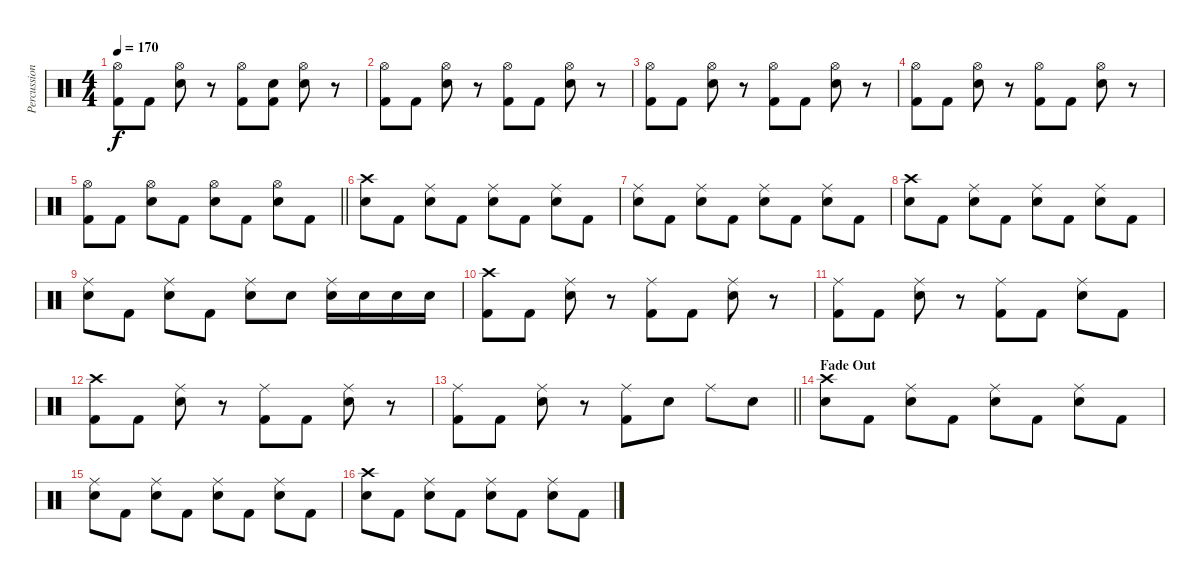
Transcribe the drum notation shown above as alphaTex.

\track ("Percussion" "Percussion") {instrument percussion}
\staff {score}
\articulation defaults
\ts (4 4)
\tempo 170
\clef neutral
\ks c
("Hi-Hat (open)" "Kick (hit) 2").8{dy f} "Kick (hit) 2".8 ("Hi-Hat (open)" "Electric Snare (hit)").8 r.8 ("Hi-Hat (open)" "Kick (hit) 2").8 ("Electric Snare (hit)" "Kick (hit) 2").8 ("Hi-Hat (open)" "Electric Snare (hit)").8 r.8 |
("Hi-Hat (open)" "Kick (hit) 2").8 "Kick (hit) 2".8 ("Hi-Hat (open)" "Electric Snare (hit)").8 r.8 ("Hi-Hat (open)" "Kick (hit) 2").8 "Kick (hit) 2".8 ("Hi-Hat (open)" "Electric Snare (hit)").8 r.8 |
("Hi-Hat (open)" "Kick (hit) 2").8 "Kick (hit) 2".8 ("Hi-Hat (open)" "Electric Snare (hit)").8 r.8 ("Hi-Hat (open)" "Kick (hit) 2").8 "Kick (hit) 2".8 ("Hi-Hat (open)" "Electric Snare (hit)").8 r.8 |
("Hi-Hat (open)" "Kick (hit) 2").8 "Kick (hit) 2".8 ("Hi-Hat (open)" "Electric Snare (hit)").8 r.8 ("Hi-Hat (open)" "Kick (hit) 2").8 "Kick (hit) 2".8 ("Hi-Hat (open)" "Electric Snare (hit)").8 r.8 |
\barLineRight lightlight
("Hi-Hat (open)" "Kick (hit) 2").8 "Kick (hit) 2".8 ("Hi-Hat (open)" "Electric Snare (hit)").8 "Kick (hit) 2".8 ("Hi-Hat (open)" "Electric Snare (hit)").8 "Kick (hit) 2".8 ("Hi-Hat (open)" "Electric Snare (hit)").8 "Kick (hit) 2".8 |
("Crash high (hit)" "Electric Snare (hit)").8 "Kick (hit) 2".8 ("Ride (middle)" "Electric Snare (hit)").8 "Kick (hit) 2".8 ("Ride (middle)" "Electric Snare (hit)").8 "Kick (hit) 2".8 ("Ride (middle)" "Electric Snare (hit)").8 "Kick (hit) 2".8 |
("Ride (middle)" "Electric Snare (hit)").8 "Kick (hit) 2".8 ("Ride (middle)" "Electric Snare (hit)").8 "Kick (hit) 2".8 ("Ride (middle)" "Electric Snare (hit)").8 "Kick (hit) 2".8 ("Ride (middle)" "Electric Snare (hit)").8 "Kick (hit) 2".8 |
("Crash high (hit)" "Electric Snare (hit)").8 "Kick (hit) 2".8 ("Ride (middle)" "Electric Snare (hit)").8 "Kick (hit) 2".8 ("Ride (middle)" "Electric Snare (hit)").8 "Kick (hit) 2".8 ("Ride (middle)" "Electric Snare (hit)").8 "Kick (hit) 2".8 |
("Ride (middle)" "Electric Snare (hit)").8 "Kick (hit) 2".8 ("Ride (middle)" "Electric Snare (hit)").8 "Kick (hit) 2".8 ("Ride (middle)" "Electric Snare (hit)").8 "Electric Snare (hit)".8 ("Ride (middle)" "Electric Snare (hit)").16 "Electric Snare (hit)".16 "Electric Snare (hit)".16 "Electric Snare (hit)".16 |
("Crash high (hit)" "Kick (hit) 2").8 "Kick (hit) 2".8 ("Ride (middle)" "Electric Snare (hit)").8 r.8 ("Ride (middle)" "Kick (hit) 2").8 "Kick (hit) 2".8 ("Ride (middle)" "Electric Snare (hit)").8 r.8 |
("Ride (middle)" "Kick (hit) 2").8 "Kick (hit) 2".8 ("Ride (middle)" "Electric Snare (hit)").8 r.8 ("Ride (middle)" "Kick (hit) 2").8 "Kick (hit) 2".8 ("Ride (middle)" "Electric Snare (hit)").8 "Kick (hit) 2".8 |
("Crash high (hit)" "Kick (hit) 2").8 "Kick (hit) 2".8 ("Ride (middle)" "Electric Snare (hit)").8 r.8 ("Ride (middle)" "Kick (hit) 2").8 "Kick (hit) 2".8 ("Ride (middle)" "Electric Snare (hit)").8 r.8 |
\barLineRight lightlight
("Ride (middle)" "Kick (hit) 2").8 "Kick (hit) 2".8 ("Ride (middle)" "Electric Snare (hit)").8 r.8 ("Ride (middle)" "Kick (hit) 2").8 "Electric Snare (hit)".8 "Ride (middle)".8 "Electric Snare (hit)".8 |
\section ("" "Fade Out")
("Crash high (hit)" "Electric Snare (hit)").8{volume 6} "Kick (hit) 2".8 ("Ride (middle)" "Electric Snare (hit)").8 "Kick (hit) 2".8 ("Ride (middle)" "Electric Snare (hit)").8 "Kick (hit) 2".8 ("Ride (middle)" "Electric Snare (hit)").8 "Kick (hit) 2".8 |
("Ride (middle)" "Electric Snare (hit)").8 "Kick (hit) 2".8 ("Ride (middle)" "Electric Snare (hit)").8 "Kick (hit) 2".8 ("Ride (middle)" "Electric Snare (hit)").8 "Kick (hit) 2".8 ("Ride (middle)" "Electric Snare (hit)").8 "Kick (hit) 2".8 |
("Crash high (hit)" "Electric Snare (hit)").8 "Kick (hit) 2".8 ("Ride (middle)" "Electric Snare (hit)").8 "Kick (hit) 2".8 ("Ride (middle)" "Electric Snare (hit)").8 "Kick (hit) 2".8 ("Ride (middle)" "Electric Snare (hit)").8 "Kick (hit) 2".8
